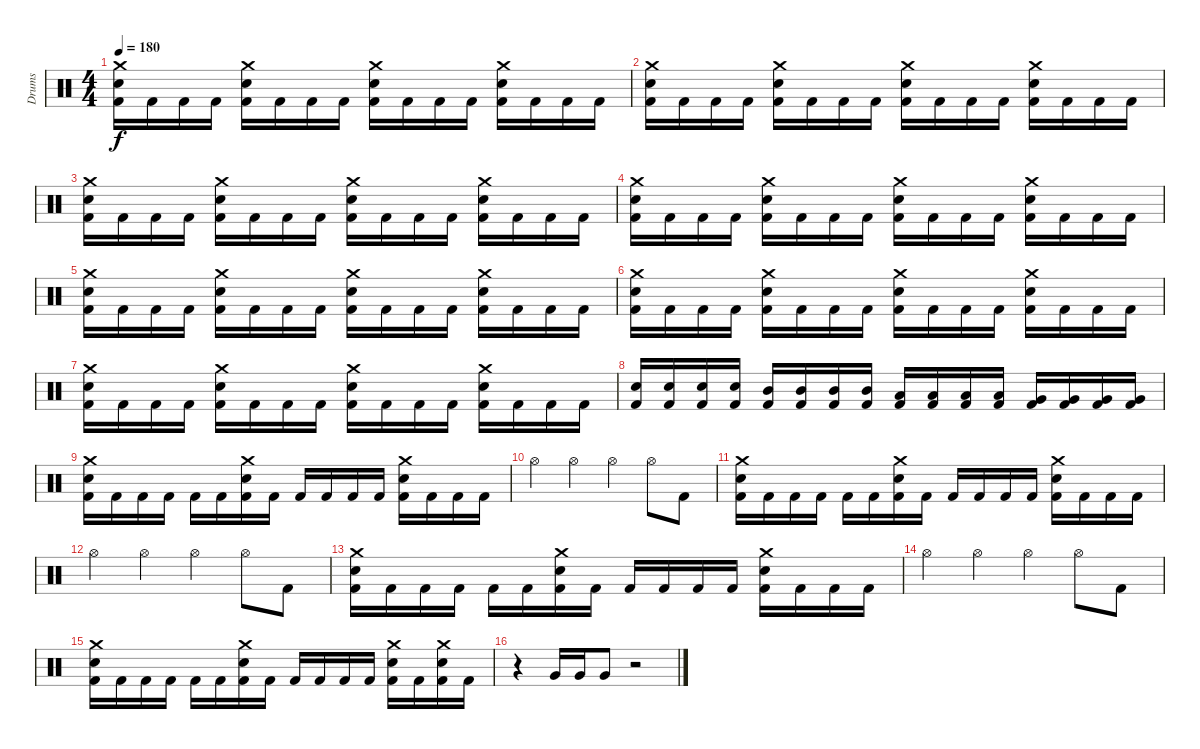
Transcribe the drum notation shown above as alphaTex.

\track ("Drums" "Drums") {instrument percussion}
\staff {score}
\articulation defaults
\ts (4 4)
\tempo 180
\clef neutral
\ks c
("Crash medium (hit)" "Electric Snare (hit)" "Kick (hit) 2").16{dy f} "Kick (hit) 2".16 "Kick (hit) 2".16 "Kick (hit) 2".16 ("Crash medium (hit)" "Electric Snare (hit)" "Kick (hit) 2").16 "Kick (hit) 2".16 "Kick (hit) 2".16 "Kick (hit) 2".16 ("Crash medium (hit)" "Electric Snare (hit)" "Kick (hit) 2").16 "Kick (hit) 2".16 "Kick (hit) 2".16 "Kick (hit) 2".16 ("Crash medium (hit)" "Electric Snare (hit)" "Kick (hit) 2").16 "Kick (hit) 2".16 "Kick (hit) 2".16 "Kick (hit) 2".16 |
("Crash medium (hit)" "Electric Snare (hit)" "Kick (hit) 2").16 "Kick (hit) 2".16 "Kick (hit) 2".16 "Kick (hit) 2".16 ("Crash medium (hit)" "Electric Snare (hit)" "Kick (hit) 2").16 "Kick (hit) 2".16 "Kick (hit) 2".16 "Kick (hit) 2".16 ("Crash medium (hit)" "Electric Snare (hit)" "Kick (hit) 2").16 "Kick (hit) 2".16 "Kick (hit) 2".16 "Kick (hit) 2".16 ("Crash medium (hit)" "Electric Snare (hit)" "Kick (hit) 2").16 "Kick (hit) 2".16 "Kick (hit) 2".16 "Kick (hit) 2".16 |
("Crash medium (hit)" "Electric Snare (hit)" "Kick (hit) 2").16 "Kick (hit) 2".16 "Kick (hit) 2".16 "Kick (hit) 2".16 ("Crash medium (hit)" "Electric Snare (hit)" "Kick (hit) 2").16 "Kick (hit) 2".16 "Kick (hit) 2".16 "Kick (hit) 2".16 ("Crash medium (hit)" "Electric Snare (hit)" "Kick (hit) 2").16 "Kick (hit) 2".16 "Kick (hit) 2".16 "Kick (hit) 2".16 ("Crash medium (hit)" "Electric Snare (hit)" "Kick (hit) 2").16 "Kick (hit) 2".16 "Kick (hit) 2".16 "Kick (hit) 2".16 |
("Crash medium (hit)" "Electric Snare (hit)" "Kick (hit) 2").16 "Kick (hit) 2".16 "Kick (hit) 2".16 "Kick (hit) 2".16 ("Crash medium (hit)" "Electric Snare (hit)" "Kick (hit) 2").16 "Kick (hit) 2".16 "Kick (hit) 2".16 "Kick (hit) 2".16 ("Crash medium (hit)" "Electric Snare (hit)" "Kick (hit) 2").16 "Kick (hit) 2".16 "Kick (hit) 2".16 "Kick (hit) 2".16 ("Crash medium (hit)" "Electric Snare (hit)" "Kick (hit) 2").16 "Kick (hit) 2".16 "Kick (hit) 2".16 "Kick (hit) 2".16 |
("Crash medium (hit)" "Electric Snare (hit)" "Kick (hit) 2").16 "Kick (hit) 2".16 "Kick (hit) 2".16 "Kick (hit) 2".16 ("Crash medium (hit)" "Electric Snare (hit)" "Kick (hit) 2").16 "Kick (hit) 2".16 "Kick (hit) 2".16 "Kick (hit) 2".16 ("Crash medium (hit)" "Electric Snare (hit)" "Kick (hit) 2").16 "Kick (hit) 2".16 "Kick (hit) 2".16 "Kick (hit) 2".16 ("Crash medium (hit)" "Electric Snare (hit)" "Kick (hit) 2").16 "Kick (hit) 2".16 "Kick (hit) 2".16 "Kick (hit) 2".16 |
("Crash medium (hit)" "Electric Snare (hit)" "Kick (hit) 2").16 "Kick (hit) 2".16 "Kick (hit) 2".16 "Kick (hit) 2".16 ("Crash medium (hit)" "Electric Snare (hit)" "Kick (hit) 2").16 "Kick (hit) 2".16 "Kick (hit) 2".16 "Kick (hit) 2".16 ("Crash medium (hit)" "Electric Snare (hit)" "Kick (hit) 2").16 "Kick (hit) 2".16 "Kick (hit) 2".16 "Kick (hit) 2".16 ("Crash medium (hit)" "Electric Snare (hit)" "Kick (hit) 2").16 "Kick (hit) 2".16 "Kick (hit) 2".16 "Kick (hit) 2".16 |
("Crash medium (hit)" "Electric Snare (hit)" "Kick (hit) 2").16 "Kick (hit) 2".16 "Kick (hit) 2".16 "Kick (hit) 2".16 ("Crash medium (hit)" "Electric Snare (hit)" "Kick (hit) 2").16 "Kick (hit) 2".16 "Kick (hit) 2".16 "Kick (hit) 2".16 ("Crash medium (hit)" "Electric Snare (hit)" "Kick (hit) 2").16 "Kick (hit) 2".16 "Kick (hit) 2".16 "Kick (hit) 2".16 ("Crash medium (hit)" "Electric Snare (hit)" "Kick (hit) 2").16 "Kick (hit) 2".16 "Kick (hit) 2".16 "Kick (hit) 2".16 |
("Electric Snare (hit)" "Kick (hit) 2").16 ("Electric Snare (hit)" "Kick (hit) 2").16 ("Electric Snare (hit)" "Kick (hit) 2").16 ("Electric Snare (hit)" "Kick (hit) 2").16 ("Mid Tom (hit)" "Kick (hit) 2").16 ("Mid Tom (hit)" "Kick (hit) 2").16 ("Mid Tom (hit)" "Kick (hit) 2").16 ("Mid Tom (hit)" "Kick (hit) 2").16 ("Low Tom (hit)" "Kick (hit) 2").16 ("Low Tom (hit)" "Kick (hit) 2").16 ("Low Tom (hit)" "Kick (hit) 2").16 ("Low Tom (hit)" "Kick (hit) 2").16 ("Very Low Tom (hit)" "Kick (hit) 2").16 ("Very Low Tom (hit)" "Kick (hit) 2").16 ("Very Low Tom (hit)" "Kick (hit) 2").16 ("Very Low Tom (hit)" "Kick (hit) 2").16 |
("Crash medium (hit)" "Electric Snare (hit)" "Kick (hit) 2").16 "Kick (hit) 2".16 "Kick (hit) 2".16 "Kick (hit) 2".16 "Kick (hit) 2".16 "Kick (hit) 2".16 ("Crash medium (hit)" "Electric Snare (hit)" "Kick (hit) 2").16 "Kick (hit) 2".16 "Kick (hit) 2".16 "Kick (hit) 2".16 "Kick (hit) 2".16 "Kick (hit) 2".16 ("Crash medium (hit)" "Electric Snare (hit)" "Kick (hit) 2").16 "Kick (hit) 2".16 "Kick (hit) 2".16 "Kick (hit) 2".16 |
"Hi-Hat (open)".4 "Hi-Hat (open)".4 "Hi-Hat (open)".4 "Hi-Hat (open)".8 "Kick (hit) 2".8 |
("Crash medium (hit)" "Electric Snare (hit)" "Kick (hit) 2").16 "Kick (hit) 2".16 "Kick (hit) 2".16 "Kick (hit) 2".16 "Kick (hit) 2".16 "Kick (hit) 2".16 ("Crash medium (hit)" "Electric Snare (hit)" "Kick (hit) 2").16 "Kick (hit) 2".16 "Kick (hit) 2".16 "Kick (hit) 2".16 "Kick (hit) 2".16 "Kick (hit) 2".16 ("Crash medium (hit)" "Electric Snare (hit)" "Kick (hit) 2").16 "Kick (hit) 2".16 "Kick (hit) 2".16 "Kick (hit) 2".16 |
"Hi-Hat (open)".4 "Hi-Hat (open)".4 "Hi-Hat (open)".4 "Hi-Hat (open)".8 "Kick (hit) 2".8 |
("Crash medium (hit)" "Electric Snare (hit)" "Kick (hit) 2").16 "Kick (hit) 2".16 "Kick (hit) 2".16 "Kick (hit) 2".16 "Kick (hit) 2".16 "Kick (hit) 2".16 ("Crash medium (hit)" "Electric Snare (hit)" "Kick (hit) 2").16 "Kick (hit) 2".16 "Kick (hit) 2".16 "Kick (hit) 2".16 "Kick (hit) 2".16 "Kick (hit) 2".16 ("Crash medium (hit)" "Electric Snare (hit)" "Kick (hit) 2").16 "Kick (hit) 2".16 "Kick (hit) 2".16 "Kick (hit) 2".16 |
"Hi-Hat (open)".4 "Hi-Hat (open)".4 "Hi-Hat (open)".4 "Hi-Hat (open)".8 "Kick (hit) 2".8 |
("Crash medium (hit)" "Electric Snare (hit)" "Kick (hit) 2").16 "Kick (hit) 2".16 "Kick (hit) 2".16 "Kick (hit) 2".16 "Kick (hit) 2".16 "Kick (hit) 2".16 ("Crash medium (hit)" "Electric Snare (hit)" "Kick (hit) 2").16 "Kick (hit) 2".16 "Kick (hit) 2".16 "Kick (hit) 2".16 "Kick (hit) 2".16 "Kick (hit) 2".16 ("Crash medium (hit)" "Electric Snare (hit)" "Kick (hit) 2").16 "Kick (hit) 2".16 ("Crash medium (hit)" "Electric Snare (hit)" "Kick (hit) 2").16 "Kick (hit) 2".16 |
r.4 "Very Low Tom (hit)".16 "Very Low Tom (hit)".16 "Very Low Tom (hit)".8 r.2
